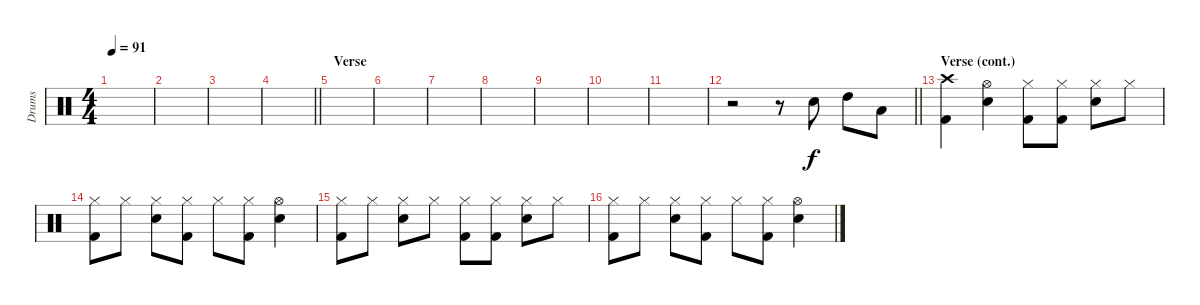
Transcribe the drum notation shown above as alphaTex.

\track ("Drums" "Drums") {instrument percussion}
\staff {score}
\articulation defaults
\ts (4 4)
\tempo 91
\clef neutral
\ks c
|
|
|
\barLineRight lightlight
|
\section ("" "Verse")
|
|
|
|
|
|
|
\barLineRight lightlight
r.2 r.8 "Snare (hit) 2".8 "High Tom (hit)".8 "Low Tom (hit)".8 |
\section ("" "Verse (cont.)")
("Crash high (hit)" "Kick (hit) 2").4 ("Hi-Hat (open)" "Snare (hit) 2").4 ("Hi-Hat (closed)" "Kick (hit) 2").8 ("Hi-Hat (closed)" "Kick (hit) 2").8 ("Hi-Hat (closed)" "Snare (hit) 2").8 "Hi-Hat (closed)".8 |
("Hi-Hat (closed)" "Kick (hit) 2").8 "Hi-Hat (closed)".8 ("Hi-Hat (closed)" "Snare (hit) 2").8 ("Hi-Hat (closed)" "Kick (hit) 2").8 "Hi-Hat (closed)".8 ("Hi-Hat (closed)" "Kick (hit) 2").8 ("Hi-Hat (open)" "Snare (hit) 2").4 |
("Hi-Hat (closed)" "Kick (hit) 2").8 "Hi-Hat (closed)".8 ("Hi-Hat (closed)" "Snare (hit) 2").8 "Hi-Hat (closed)".8 ("Hi-Hat (closed)" "Kick (hit) 2").8 ("Hi-Hat (closed)" "Kick (hit) 2").8 ("Hi-Hat (closed)" "Snare (hit) 2").8 "Hi-Hat (closed)".8 |
("Hi-Hat (closed)" "Kick (hit) 2").8 "Hi-Hat (closed)".8 ("Hi-Hat (closed)" "Snare (hit) 2").8 ("Hi-Hat (closed)" "Kick (hit) 2").8 "Hi-Hat (closed)".8 ("Hi-Hat (closed)" "Kick (hit) 2").8 ("Hi-Hat (open)" "Snare (hit) 2").4
